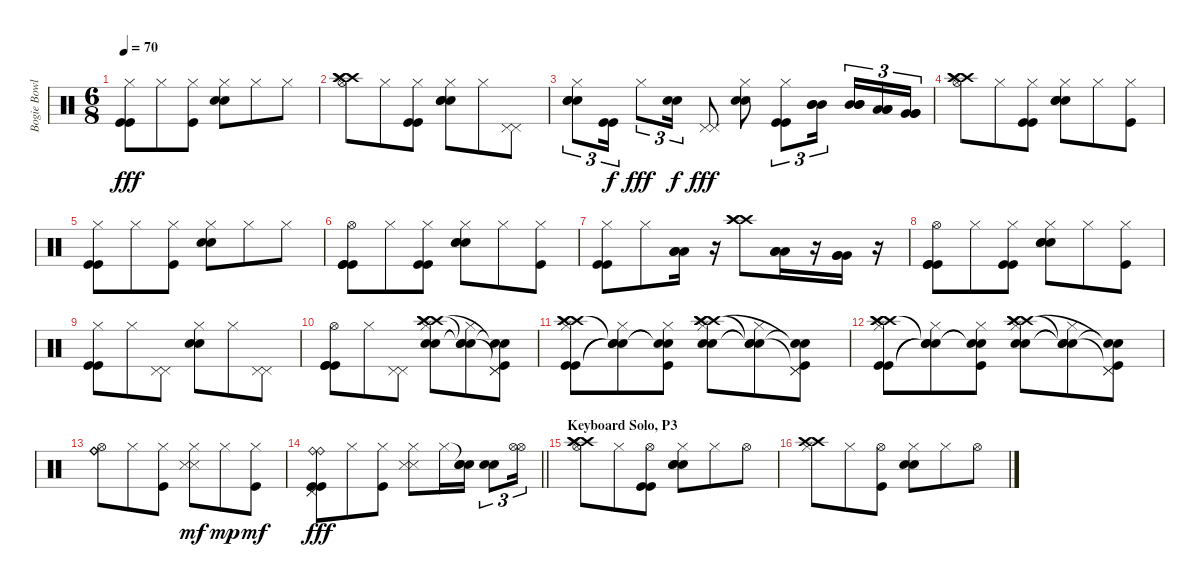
\track ("Bogie Bowles" "Bogie Bowl") {instrument percussion}
\staff {score}
\articulation defaults
\ts (6 8)
\tempo 70
\clef neutral
\ks c
("Hi-Hat (closed)" "Kick (hit)" "Kick (hit)").8{dy fff} "Hi-Hat (closed)".8 ("Hi-Hat (closed)" "Kick (hit)").8 ("Hi-Hat (closed)" "Snare (hit) 2" "Snare (hit) 2").8 "Hi-Hat (closed)".8 "Hi-Hat (closed)".8 |
("Hi-Hat (open)" "Crash high (hit)" "Crash high (hit)" "Crash high (hit)").8 "Hi-Hat (closed)".8 ("Hi-Hat (closed)" "Kick (hit)" "Kick (hit)").8 ("Hi-Hat (closed)" "Snare (hit) 2" "Snare (hit) 2" "Snare (hit) 2").8 "Hi-Hat (closed)".8 ("Pedal Hi-Hat (hit)" "Pedal Hi-Hat (hit)").8 |
("Hi-Hat (closed)" "Snare (hit) 2" "Snare (hit) 2" "Snare (hit) 2").8{tu (3 2)} ("Kick (hit)" "Kick (hit)").16{tu (3 2) dy f} "Hi-Hat (closed)".8{tu (3 2) dy fff} ("Snare (hit) 2" "Snare (hit) 2").16{tu (3 2) dy f} ("Pedal Hi-Hat (hit)" "Pedal Hi-Hat (hit)").8{dy fff} ("Hi-Hat (closed)" "Snare (hit) 2" "Snare (hit) 2").8 ("Hi-Hat (closed)" "Kick (hit)" "Kick (hit)").8{tu (3 2)} ("Mid Tom (hit)" "Mid Tom (hit)" "Mid Tom (hit)").16{tu (3 2) beam splitsecondary} ("Mid Tom (hit)" "Mid Tom (hit)" "Mid Tom (hit)").16{tu (3 2)} ("Low Tom (hit)" "Low Tom (hit)" "Low Tom (hit)").16{tu (3 2)} ("Very Low Tom (hit)" "Very Low Tom (hit)" "Very Low Tom (hit)").16{tu (3 2)} |
("Hi-Hat (open)" "Crash high (hit)" "Crash high (hit)" "Crash high (hit)").8 "Hi-Hat (closed)".8 ("Hi-Hat (closed)" "Kick (hit)" "Kick (hit)").8 ("Hi-Hat (closed)" "Snare (hit) 2" "Snare (hit) 2" "Snare (hit) 2").8 "Hi-Hat (closed)".8 ("Hi-Hat (closed)" "Kick (hit)").8 |
("Hi-Hat (closed)" "Kick (hit)" "Kick (hit)").8 "Hi-Hat (closed)".8 ("Hi-Hat (closed)" "Kick (hit)").8 ("Hi-Hat (closed)" "Snare (hit) 2" "Snare (hit) 2").8 "Hi-Hat (closed)".8 "Hi-Hat (closed)".8 |
("Hi-Hat (open)" "Kick (hit)" "Kick (hit)" "Kick (hit)").8 "Hi-Hat (closed)".8 ("Hi-Hat (closed)" "Kick (hit)" "Kick (hit)").8 ("Hi-Hat (closed)" "Snare (hit) 2" "Snare (hit) 2" "Snare (hit) 2").8 "Hi-Hat (closed)".8 ("Hi-Hat (closed)" "Kick (hit)").8 |
("Hi-Hat (closed)" "Kick (hit)" "Kick (hit)").8 "Hi-Hat (closed)".8 ("Low Tom (hit)" "Low Tom (hit)" "Low Tom (hit)").16 r.16 ("Crash high (hit)" "Crash high (hit)" "Crash high (hit)").8 ("Low Tom (hit)" "Low Tom (hit)" "Low Tom (hit)").16 r.16 ("Very Low Tom (hit)" "Very Low Tom (hit)" "Very Low Tom (hit)").16 r.16 |
("Hi-Hat (open)" "Kick (hit)" "Kick (hit)" "Kick (hit)").8 "Hi-Hat (closed)".8 ("Hi-Hat (closed)" "Kick (hit)" "Kick (hit)").8 ("Hi-Hat (closed)" "Snare (hit) 2" "Snare (hit) 2" "Snare (hit) 2").8 "Hi-Hat (closed)".8 ("Hi-Hat (closed)" "Kick (hit)").8 |
("Hi-Hat (closed)" "Kick (hit)" "Kick (hit)").8 "Hi-Hat (closed)".8 ("Pedal Hi-Hat (hit)" "Pedal Hi-Hat (hit)").8 ("Hi-Hat (closed)" "Snare (hit) 2" "Snare (hit) 2").8 "Hi-Hat (closed)".8 ("Pedal Hi-Hat (hit)" "Pedal Hi-Hat (hit)").8 |
("Hi-Hat (open)" "Kick (hit)" "Kick (hit)" "Kick (hit)").8 "Hi-Hat (closed)".8 ("Pedal Hi-Hat (hit)" "Pedal Hi-Hat (hit)").8 ("Hi-Hat (closed)" "Snare (hit) 2" "Snare (hit) 2" "Crash high (hit)" "Crash high (hit)" "Crash high (hit)").8 ("Hi-Hat (closed)" "Snare (hit)"{t} "Snare (hit)"{t} "Snare (hit)"{t}).8 ("Pedal Hi-Hat (hit)" "Pedal Hi-Hat (hit)" "Kick (hit)"{t} "Snare (hit)"{t} "Snare (hit)"{t}).8 |
("Hi-Hat (closed)" "Kick (hit)" "Kick (hit)" "Crash high (hit)" "Crash high (hit)" "Crash high (hit)").8 ("Hi-Hat (closed)" "Snare (hit)"{t} "Snare (hit)"{t} "Snare (hit)"{t}).8 ("Hi-Hat (closed)" "Kick (hit)" "Snare (hit)"{t} "Snare (hit)"{t}).8 ("Hi-Hat (closed)" "Snare (hit) 2" "Snare (hit) 2" "Crash high (hit)" "Crash high (hit)" "Crash high (hit)").8 ("Hi-Hat (closed)" "Snare (hit)"{t} "Snare (hit)"{t} "Snare (hit)"{t}).8 ("Pedal Hi-Hat (hit)" "Pedal Hi-Hat (hit)" "Kick (hit)"{t} "Snare (hit)"{t} "Snare (hit)"{t}).8 |
("Hi-Hat (closed)" "Kick (hit)" "Kick (hit)" "Crash high (hit)" "Crash high (hit)" "Crash high (hit)").8 ("Hi-Hat (closed)" "Snare (hit)"{t} "Snare (hit)"{t} "Snare (hit)"{t}).8 ("Hi-Hat (closed)" "Kick (hit)" "Snare (hit)"{t} "Snare (hit)"{t}).8 ("Hi-Hat (closed)" "Snare (hit) 2" "Snare (hit) 2" "Crash high (hit)" "Crash high (hit)" "Crash high (hit)").8 ("Hi-Hat (closed)" "Snare (hit)"{t} "Snare (hit)"{t} "Snare (hit)"{t}).8 ("Pedal Hi-Hat (hit)" "Pedal Hi-Hat (hit)" "Kick (hit)"{t} "Snare (hit)"{t} "Snare (hit)"{t}).8 |
("Hi-Hat (open)" "Ride (bell)" "Ride (bell)" "Ride (bell)").8 "Hi-Hat (closed)".8 ("Hi-Hat (closed)" "Kick (hit)").8 ("Hi-Hat (closed)" "Snare (side stick) 3" "Snare (side stick) 3").8{dy mf} "Hi-Hat (closed)".8{dy mp} ("Hi-Hat (closed)" "Kick (hit)").8{dy mf} |
\barLineRight lightlight
("Pedal Hi-Hat (hit)" "Pedal Hi-Hat (hit)" "Ride (bell)" "Kick (hit)" "Kick (hit)" "Ride (bell)").8{dy fff} "Hi-Hat (closed)".8 ("Hi-Hat (closed)" "Kick (hit)").8 ("Hi-Hat (closed)" "Snare (side stick) 3" "Snare (side stick) 3").8 "Hi-Hat (closed)".16 ("Snare (hit)"{t} "Snare (hit) 2" "Snare (hit) 2").16 ("Snare (hit) 2" "Snare (hit) 2").8{tu (3 2)} ("Hi-Hat (open)" "Hi-Hat (open)").16{tu (3 2)} |
\section ("" "Keyboard Solo, P3")
("Hi-Hat (open)" "Crash high (hit)" "Crash high (hit)" "Crash high (hit)").8 "Hi-Hat (closed)".8 ("Hi-Hat (open)" "Kick (hit)" "Kick (hit)").8 ("Hi-Hat (closed)" "Snare (hit) 2" "Snare (hit) 2" "Snare (hit) 2").8 "Hi-Hat (closed)".8 "Hi-Hat (open)".8 |
("Hi-Hat (closed)" "Crash high (hit)" "Crash high (hit)").8 "Hi-Hat (closed)".8 ("Hi-Hat (open)" "Kick (hit)").8 ("Hi-Hat (closed)" "Snare (hit) 2" "Snare (hit) 2").8 "Hi-Hat (closed)".8 "Hi-Hat (open)".8
